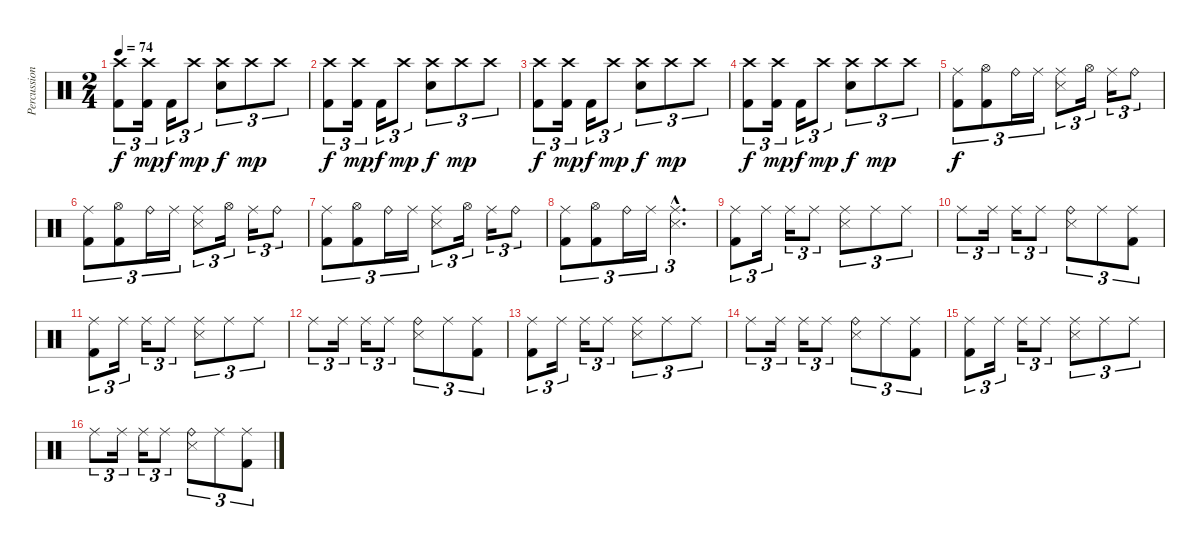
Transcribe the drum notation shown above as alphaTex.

\track ("Percussion" "Percussion") {instrument percussion}
\staff {score}
\articulation defaults
\ts (2 4)
\tempo 74
\clef neutral
\ks c
("Crash high (hit)" "Kick (hit) 2").8{tu (3 2) dy f} ("Crash high (hit)" "Kick (hit) 2").16{tu (3 2) dy mp} "Kick (hit) 2".16{tu (3 2) dy f} "Crash high (hit)".8{tu (3 2) dy mp} ("Crash high (hit)" "Snare (hit) 2").8{tu (3 2) dy f} "Crash high (hit)".8{tu (3 2) dy mp} "Crash high (hit)".8{tu (3 2)} |
("Crash high (hit)" "Kick (hit) 2").8{tu (3 2) dy f} ("Crash high (hit)" "Kick (hit) 2").16{tu (3 2) dy mp} "Kick (hit) 2".16{tu (3 2) dy f} "Crash high (hit)".8{tu (3 2) dy mp} ("Crash high (hit)" "Snare (hit) 2").8{tu (3 2) dy f} "Crash high (hit)".8{tu (3 2) dy mp} "Crash high (hit)".8{tu (3 2)} |
("Crash high (hit)" "Kick (hit) 2").8{tu (3 2) dy f} ("Crash high (hit)" "Kick (hit) 2").16{tu (3 2) dy mp} "Kick (hit) 2".16{tu (3 2) dy f} "Crash high (hit)".8{tu (3 2) dy mp} ("Crash high (hit)" "Snare (hit) 2").8{tu (3 2) dy f} "Crash high (hit)".8{tu (3 2) dy mp} "Crash high (hit)".8{tu (3 2)} |
("Crash high (hit)" "Kick (hit) 2").8{tu (3 2) dy f} ("Crash high (hit)" "Kick (hit) 2").16{tu (3 2) dy mp} "Kick (hit) 2".16{tu (3 2) dy f} "Crash high (hit)".8{tu (3 2) dy mp} ("Crash high (hit)" "Snare (hit) 2").8{tu (3 2) dy f} "Crash high (hit)".8{tu (3 2) dy mp} "Crash high (hit)".8{tu (3 2)} |
("Ride (middle)" "Kick (hit) 2").8{tu (3 2) dy f} ("Hi-Hat (open)" "Kick (hit) 2").8{tu (3 2)} "Ride (bell)".16{tu (3 2)} "Ride (middle)".16{tu (3 2)} ("Ride (middle)" "Snare (side stick) 3").8{tu (3 2)} "Hi-Hat (open)".16{tu (3 2)} "Ride (middle)".16{tu (3 2)} "Ride (bell)".8{tu (3 2)} |
("Ride (middle)" "Kick (hit) 2").8{tu (3 2)} ("Hi-Hat (open)" "Kick (hit) 2").8{tu (3 2)} "Ride (bell)".16{tu (3 2)} "Ride (middle)".16{tu (3 2)} ("Ride (middle)" "Snare (side stick) 3").8{tu (3 2)} "Hi-Hat (open)".16{tu (3 2)} "Ride (middle)".16{tu (3 2)} "Ride (bell)".8{tu (3 2)} |
("Ride (middle)" "Kick (hit) 2").8{tu (3 2)} ("Hi-Hat (open)" "Kick (hit) 2").8{tu (3 2)} "Ride (bell)".16{tu (3 2)} "Ride (middle)".16{tu (3 2)} ("Ride (middle)" "Snare (side stick) 3").8{tu (3 2)} "Hi-Hat (open)".16{tu (3 2)} "Ride (middle)".16{tu (3 2)} "Ride (bell)".8{tu (3 2)} |
("Ride (middle)" "Kick (hit) 2").8{tu (3 2)} ("Hi-Hat (open)" "Kick (hit) 2").8{tu (3 2)} "Ride (bell)".16{tu (3 2)} "Ride (middle)".16{tu (3 2)} ("Ride (middle)"{hac} "Snare (side stick) 3"{hac}).4{d tu (3 2)} |
("Ride (middle)" "Kick (hit) 2").8{tu (3 2)} "Ride (middle)".16{tu (3 2)} "Ride (middle)".16{tu (3 2)} "Ride (middle)".8{tu (3 2)} ("Ride (middle)" "Snare (side stick) 3").8{tu (3 2)} "Ride (middle)".8{tu (3 2)} "Ride (middle)".8{tu (3 2)} |
"Ride (middle)".8{tu (3 2)} "Ride (middle)".16{tu (3 2)} "Ride (middle)".16{tu (3 2)} "Ride (middle)".8{tu (3 2)} ("Ride (bell)" "Snare (side stick) 3").8{tu (3 2)} "Ride (middle)".8{tu (3 2)} ("Ride (middle)" "Kick (hit) 2").8{tu (3 2)} |
("Ride (middle)" "Kick (hit) 2").8{tu (3 2)} "Ride (middle)".16{tu (3 2)} "Ride (middle)".16{tu (3 2)} "Ride (middle)".8{tu (3 2)} ("Ride (middle)" "Snare (side stick) 3").8{tu (3 2)} "Ride (middle)".8{tu (3 2)} "Ride (middle)".8{tu (3 2)} |
"Ride (middle)".8{tu (3 2)} "Ride (middle)".16{tu (3 2)} "Ride (middle)".16{tu (3 2)} "Ride (middle)".8{tu (3 2)} ("Ride (bell)" "Snare (side stick) 3").8{tu (3 2)} "Ride (middle)".8{tu (3 2)} ("Ride (middle)" "Kick (hit) 2").8{tu (3 2)} |
("Ride (middle)" "Kick (hit) 2").8{tu (3 2)} "Ride (middle)".16{tu (3 2)} "Ride (middle)".16{tu (3 2)} "Ride (middle)".8{tu (3 2)} ("Ride (middle)" "Snare (side stick) 3").8{tu (3 2)} "Ride (middle)".8{tu (3 2)} "Ride (middle)".8{tu (3 2)} |
"Ride (middle)".8{tu (3 2)} "Ride (middle)".16{tu (3 2)} "Ride (middle)".16{tu (3 2)} "Ride (middle)".8{tu (3 2)} ("Ride (bell)" "Snare (side stick) 3").8{tu (3 2)} "Ride (middle)".8{tu (3 2)} ("Ride (middle)" "Kick (hit) 2").8{tu (3 2)} |
("Ride (middle)" "Kick (hit) 2").8{tu (3 2)} "Ride (middle)".16{tu (3 2)} "Ride (middle)".16{tu (3 2)} "Ride (middle)".8{tu (3 2)} ("Ride (middle)" "Snare (side stick) 3").8{tu (3 2)} "Ride (middle)".8{tu (3 2)} "Ride (middle)".8{tu (3 2)} |
"Ride (middle)".8{tu (3 2)} "Ride (middle)".16{tu (3 2)} "Ride (middle)".16{tu (3 2)} "Ride (middle)".8{tu (3 2)} ("Ride (bell)" "Snare (side stick) 3").8{tu (3 2)} "Ride (middle)".8{tu (3 2)} ("Ride (middle)" "Kick (hit) 2").8{tu (3 2)}
